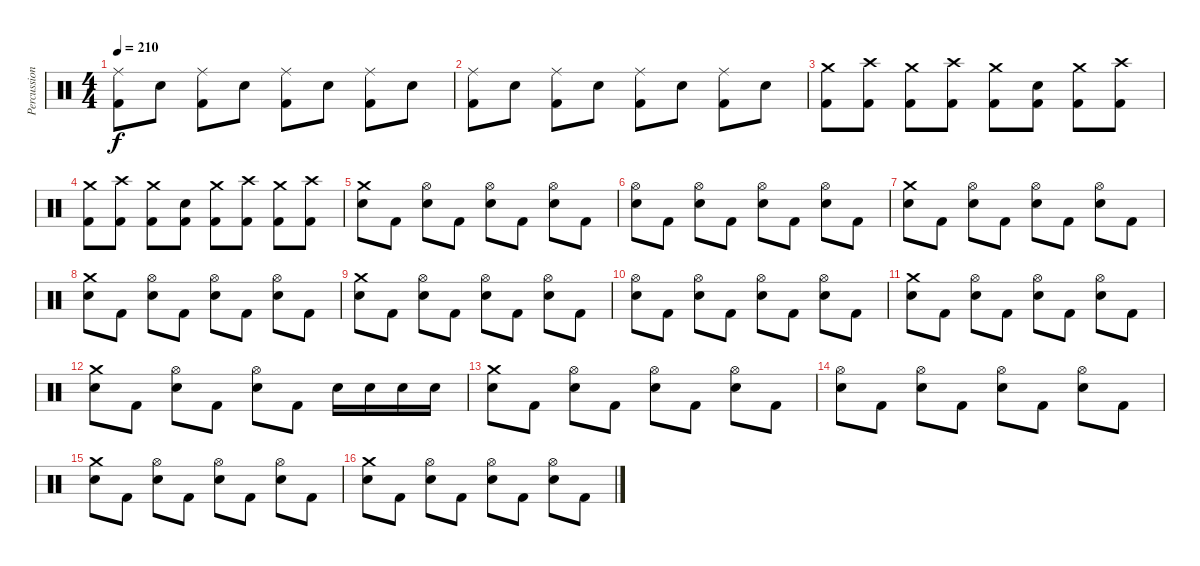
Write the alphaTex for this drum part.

\track ("Percussion" "Percussion") {instrument percussion}
\staff {score}
\articulation defaults
\ts (4 4)
\tempo 210
\clef neutral
\ks c
("Kick (hit) 2" "Ride (middle)").8{dy f} "Electric Snare (hit)".8 ("Kick (hit) 2" "Ride (middle)").8 "Electric Snare (hit)".8 ("Kick (hit) 2" "Ride (middle)").8 "Electric Snare (hit)".8 ("Kick (hit) 2" "Ride (middle)").8 "Electric Snare (hit)".8 |
("Kick (hit) 2" "Ride (middle)").8 "Electric Snare (hit)".8 ("Kick (hit) 2" "Ride (middle)").8 "Electric Snare (hit)".8 ("Kick (hit) 2" "Ride (middle)").8 "Electric Snare (hit)".8 ("Kick (hit) 2" "Ride (middle)").8 "Electric Snare (hit)".8 |
("Kick (hit) 2" "Crash medium (hit)").8 ("Kick (hit) 2" "Crash high (hit)").8 ("Kick (hit) 2" "Crash medium (hit)").8 ("Kick (hit) 2" "Crash high (hit)").8 ("Kick (hit) 2" "Crash medium (hit)").8 ("Kick (hit) 2" "Electric Snare (hit)").8 ("Kick (hit) 2" "Crash medium (hit)").8 ("Kick (hit) 2" "Crash high (hit)").8 |
("Kick (hit) 2" "Crash medium (hit)").8 ("Kick (hit) 2" "Crash high (hit)").8 ("Kick (hit) 2" "Crash medium (hit)").8 ("Kick (hit) 2" "Electric Snare (hit)").8 ("Kick (hit) 2" "Crash medium (hit)").8 ("Kick (hit) 2" "Crash high (hit)").8 ("Kick (hit) 2" "Crash medium (hit)").8 ("Kick (hit) 2" "Crash high (hit)").8 |
("Electric Snare (hit)" "Crash medium (hit)").8 "Kick (hit) 2".8 ("Electric Snare (hit)" "Hi-Hat (open)").8 "Kick (hit) 2".8 ("Electric Snare (hit)" "Hi-Hat (open)").8 "Kick (hit) 2".8 ("Electric Snare (hit)" "Hi-Hat (open)").8 "Kick (hit) 2".8 |
("Electric Snare (hit)" "Hi-Hat (open)").8 "Kick (hit) 2".8 ("Electric Snare (hit)" "Hi-Hat (open)").8 "Kick (hit) 2".8 ("Electric Snare (hit)" "Hi-Hat (open)").8 "Kick (hit) 2".8 ("Electric Snare (hit)" "Hi-Hat (open)").8 "Kick (hit) 2".8 |
("Electric Snare (hit)" "Crash medium (hit)").8 "Kick (hit) 2".8 ("Electric Snare (hit)" "Hi-Hat (open)").8 "Kick (hit) 2".8 ("Electric Snare (hit)" "Hi-Hat (open)").8 "Kick (hit) 2".8 ("Electric Snare (hit)" "Hi-Hat (open)").8 "Kick (hit) 2".8 |
("Electric Snare (hit)" "Crash medium (hit)").8 "Kick (hit) 2".8 ("Electric Snare (hit)" "Hi-Hat (open)").8 "Kick (hit) 2".8 ("Electric Snare (hit)" "Hi-Hat (open)").8 "Kick (hit) 2".8 ("Electric Snare (hit)" "Hi-Hat (open)").8 "Kick (hit) 2".8 |
("Electric Snare (hit)" "Crash medium (hit)").8 "Kick (hit) 2".8 ("Electric Snare (hit)" "Hi-Hat (open)").8 "Kick (hit) 2".8 ("Electric Snare (hit)" "Hi-Hat (open)").8 "Kick (hit) 2".8 ("Electric Snare (hit)" "Hi-Hat (open)").8 "Kick (hit) 2".8 |
("Electric Snare (hit)" "Hi-Hat (open)").8 "Kick (hit) 2".8 ("Electric Snare (hit)" "Hi-Hat (open)").8 "Kick (hit) 2".8 ("Electric Snare (hit)" "Hi-Hat (open)").8 "Kick (hit) 2".8 ("Electric Snare (hit)" "Hi-Hat (open)").8 "Kick (hit) 2".8 |
("Electric Snare (hit)" "Crash medium (hit)").8 "Kick (hit) 2".8 ("Electric Snare (hit)" "Hi-Hat (open)").8 "Kick (hit) 2".8 ("Electric Snare (hit)" "Hi-Hat (open)").8 "Kick (hit) 2".8 ("Electric Snare (hit)" "Hi-Hat (open)").8 "Kick (hit) 2".8 |
("Electric Snare (hit)" "Crash medium (hit)").8 "Kick (hit) 2".8 ("Electric Snare (hit)" "Hi-Hat (open)").8 "Kick (hit) 2".8 ("Electric Snare (hit)" "Hi-Hat (open)").8 "Kick (hit) 2".8 "Electric Snare (hit)".16 "Electric Snare (hit)".16 "Electric Snare (hit)".16 "Electric Snare (hit)".16 |
("Electric Snare (hit)" "Crash medium (hit)").8 "Kick (hit) 2".8 ("Electric Snare (hit)" "Hi-Hat (open)").8 "Kick (hit) 2".8 ("Electric Snare (hit)" "Hi-Hat (open)").8 "Kick (hit) 2".8 ("Electric Snare (hit)" "Hi-Hat (open)").8 "Kick (hit) 2".8 |
("Electric Snare (hit)" "Hi-Hat (open)").8 "Kick (hit) 2".8 ("Electric Snare (hit)" "Hi-Hat (open)").8 "Kick (hit) 2".8 ("Electric Snare (hit)" "Hi-Hat (open)").8 "Kick (hit) 2".8 ("Electric Snare (hit)" "Hi-Hat (open)").8 "Kick (hit) 2".8 |
("Electric Snare (hit)" "Crash medium (hit)").8 "Kick (hit) 2".8 ("Electric Snare (hit)" "Hi-Hat (open)").8 "Kick (hit) 2".8 ("Electric Snare (hit)" "Hi-Hat (open)").8 "Kick (hit) 2".8 ("Electric Snare (hit)" "Hi-Hat (open)").8 "Kick (hit) 2".8 |
("Electric Snare (hit)" "Crash medium (hit)").8 "Kick (hit) 2".8 ("Electric Snare (hit)" "Hi-Hat (open)").8 "Kick (hit) 2".8 ("Electric Snare (hit)" "Hi-Hat (open)").8 "Kick (hit) 2".8 ("Electric Snare (hit)" "Hi-Hat (open)").8 "Kick (hit) 2".8
